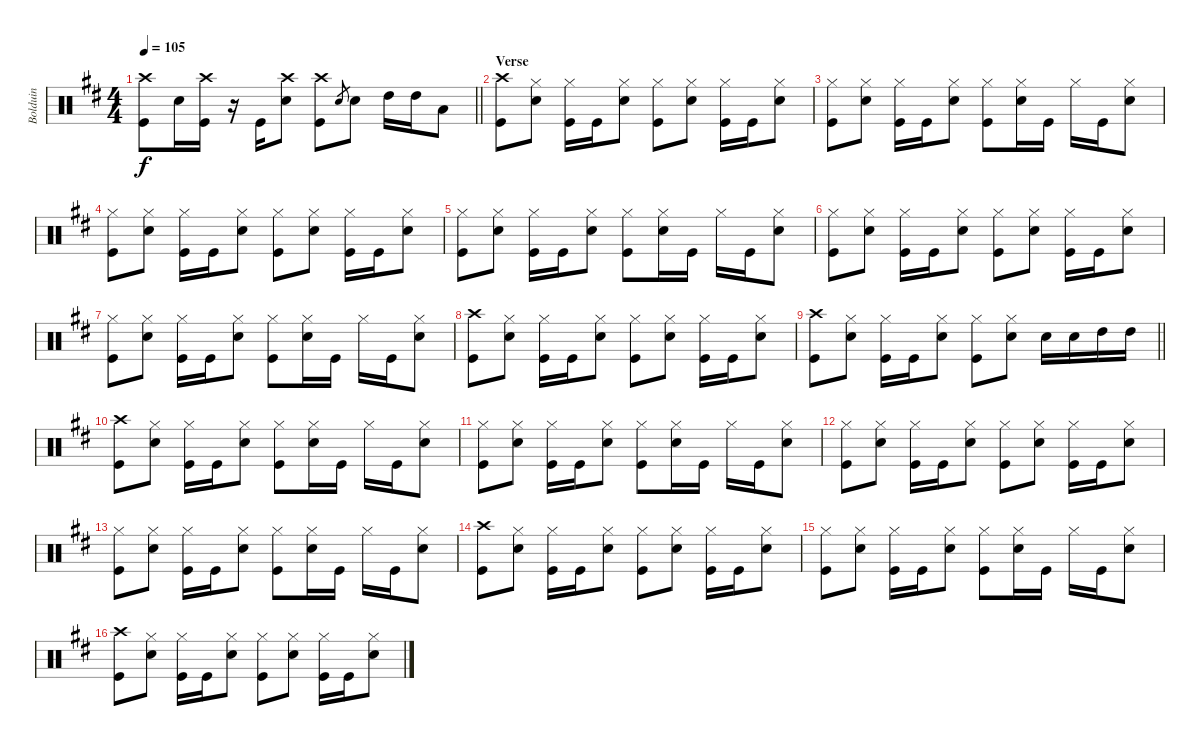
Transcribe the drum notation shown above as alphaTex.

\track ("Bolduin" "Bolduin") {instrument percussion}
\staff {score}
\articulation defaults
\ts (4 4)
\tempo 105
\clef neutral
\barLineRight lightlight
\ks bminor
("Kick (hit)" "Crash high (hit)").8{dy f} "Snare (hit) 2".16 ("Crash high (hit)" "Kick (hit)").16 r.16 "Kick (hit)".16 ("Snare (hit) 2" "Crash high (hit)").8 ("Kick (hit)" "Crash high (hit)").8 "Snare (hit) 2".8{gr} "Snare (hit) 2".8 "High Tom (hit)".16 "High Tom (hit)".16 "Low Tom (hit)".8 |
\section ("" "Verse")
("Kick (hit)" "Crash high (hit)").8 ("Hi-Hat (closed)" "Snare (hit) 2").8 ("Kick (hit)" "Hi-Hat (closed)").16 "Kick (hit)".16 ("Snare (hit) 2" "Hi-Hat (closed)").8 ("Kick (hit)" "Hi-Hat (closed)").8 ("Hi-Hat (closed)" "Snare (hit) 2").8 ("Hi-Hat (closed)" "Kick (hit)").16 "Kick (hit)".16 ("Snare (hit) 2" "Hi-Hat (closed)").8 |
("Hi-Hat (closed)" "Kick (hit)").8 ("Hi-Hat (closed)" "Snare (hit) 2").8 ("Kick (hit)" "Hi-Hat (closed)").16 "Kick (hit)".16 ("Snare (hit) 2" "Hi-Hat (closed)").8 ("Kick (hit)" "Hi-Hat (closed)").8 ("Hi-Hat (closed)" "Snare (hit) 2").16 "Kick (hit)".16 "Hi-Hat (closed)".16 "Kick (hit)".16 ("Snare (hit) 2" "Hi-Hat (closed)").8 |
("Hi-Hat (closed)" "Kick (hit)").8 ("Hi-Hat (closed)" "Snare (hit) 2").8 ("Kick (hit)" "Hi-Hat (closed)").16 "Kick (hit)".16 ("Snare (hit) 2" "Hi-Hat (closed)").8 ("Kick (hit)" "Hi-Hat (closed)").8 ("Hi-Hat (closed)" "Snare (hit) 2").8 ("Hi-Hat (closed)" "Kick (hit)").16 "Kick (hit)".16 ("Snare (hit) 2" "Hi-Hat (closed)").8 |
("Hi-Hat (closed)" "Kick (hit)").8 ("Hi-Hat (closed)" "Snare (hit) 2").8 ("Kick (hit)" "Hi-Hat (closed)").16 "Kick (hit)".16 ("Snare (hit) 2" "Hi-Hat (closed)").8 ("Kick (hit)" "Hi-Hat (closed)").8 ("Hi-Hat (closed)" "Snare (hit) 2").16 "Kick (hit)".16 "Hi-Hat (closed)".16 "Kick (hit)".16 ("Snare (hit) 2" "Hi-Hat (closed)").8 |
("Hi-Hat (closed)" "Kick (hit)").8 ("Hi-Hat (closed)" "Snare (hit) 2").8 ("Kick (hit)" "Hi-Hat (closed)").16 "Kick (hit)".16 ("Snare (hit) 2" "Hi-Hat (closed)").8 ("Kick (hit)" "Hi-Hat (closed)").8 ("Hi-Hat (closed)" "Snare (hit) 2").8 ("Hi-Hat (closed)" "Kick (hit)").16 "Kick (hit)".16 ("Snare (hit) 2" "Hi-Hat (closed)").8 |
("Hi-Hat (closed)" "Kick (hit)").8 ("Hi-Hat (closed)" "Snare (hit) 2").8 ("Kick (hit)" "Hi-Hat (closed)").16 "Kick (hit)".16 ("Snare (hit) 2" "Hi-Hat (closed)").8 ("Kick (hit)" "Hi-Hat (closed)").8 ("Hi-Hat (closed)" "Snare (hit) 2").16 "Kick (hit)".16 "Hi-Hat (closed)".16 "Kick (hit)".16 ("Snare (hit) 2" "Hi-Hat (closed)").8 |
("Crash high (hit)" "Kick (hit)").8 ("Hi-Hat (closed)" "Snare (hit) 2").8 ("Kick (hit)" "Hi-Hat (closed)").16 "Kick (hit)".16 ("Snare (hit) 2" "Hi-Hat (closed)").8 ("Kick (hit)" "Hi-Hat (closed)").8 ("Hi-Hat (closed)" "Snare (hit) 2").8 ("Hi-Hat (closed)" "Kick (hit)").16 "Kick (hit)".16 ("Snare (hit) 2" "Hi-Hat (closed)").8 |
\barLineRight lightlight
("Crash high (hit)" "Kick (hit)").8 ("Hi-Hat (closed)" "Snare (hit) 2").8 ("Kick (hit)" "Hi-Hat (closed)").16 "Kick (hit)".16 ("Snare (hit) 2" "Hi-Hat (closed)").8 ("Kick (hit)" "Hi-Hat (closed)").8 ("Hi-Hat (closed)" "Snare (hit) 2").8 "Snare (hit) 2".16 "Snare (hit) 2".16 "High Tom (hit)".16 "High Tom (hit)".16 |
("Crash high (hit)" "Kick (hit)").8 ("Hi-Hat (closed)" "Snare (hit) 2").8 ("Kick (hit)" "Hi-Hat (closed)").16 "Kick (hit)".16 ("Snare (hit) 2" "Hi-Hat (closed)").8 ("Kick (hit)" "Hi-Hat (closed)").8 ("Hi-Hat (closed)" "Snare (hit) 2").16 "Kick (hit)".16 "Hi-Hat (closed)".16 "Kick (hit)".16 ("Snare (hit) 2" "Hi-Hat (closed)").8 |
("Hi-Hat (closed)" "Kick (hit)").8 ("Hi-Hat (closed)" "Snare (hit) 2").8 ("Kick (hit)" "Hi-Hat (closed)").16 "Kick (hit)".16 ("Snare (hit) 2" "Hi-Hat (closed)").8 ("Kick (hit)" "Hi-Hat (closed)").8 ("Hi-Hat (closed)" "Snare (hit) 2").16 "Kick (hit)".16 "Hi-Hat (closed)".16 "Kick (hit)".16 ("Snare (hit) 2" "Hi-Hat (closed)").8 |
("Hi-Hat (closed)" "Kick (hit)").8 ("Hi-Hat (closed)" "Snare (hit) 2").8 ("Kick (hit)" "Hi-Hat (closed)").16 "Kick (hit)".16 ("Snare (hit) 2" "Hi-Hat (closed)").8 ("Kick (hit)" "Hi-Hat (closed)").8 ("Hi-Hat (closed)" "Snare (hit) 2").8 ("Hi-Hat (closed)" "Kick (hit)").16 "Kick (hit)".16 ("Snare (hit) 2" "Hi-Hat (closed)").8 |
("Hi-Hat (closed)" "Kick (hit)").8 ("Hi-Hat (closed)" "Snare (hit) 2").8 ("Kick (hit)" "Hi-Hat (closed)").16 "Kick (hit)".16 ("Snare (hit) 2" "Hi-Hat (closed)").8 ("Kick (hit)" "Hi-Hat (closed)").8 ("Hi-Hat (closed)" "Snare (hit) 2").16 "Kick (hit)".16 "Hi-Hat (closed)".16 "Kick (hit)".16 ("Snare (hit) 2" "Hi-Hat (closed)").8 |
("Crash high (hit)" "Kick (hit)").8 ("Hi-Hat (closed)" "Snare (hit) 2").8 ("Kick (hit)" "Hi-Hat (closed)").16 "Kick (hit)".16 ("Snare (hit) 2" "Hi-Hat (closed)").8 ("Kick (hit)" "Hi-Hat (closed)").8 ("Hi-Hat (closed)" "Snare (hit) 2").8 ("Hi-Hat (closed)" "Kick (hit)").16 "Kick (hit)".16 ("Snare (hit) 2" "Hi-Hat (closed)").8 |
("Hi-Hat (closed)" "Kick (hit)").8 ("Hi-Hat (closed)" "Snare (hit) 2").8 ("Kick (hit)" "Hi-Hat (closed)").16 "Kick (hit)".16 ("Snare (hit) 2" "Hi-Hat (closed)").8 ("Kick (hit)" "Hi-Hat (closed)").8 ("Hi-Hat (closed)" "Snare (hit) 2").16 "Kick (hit)".16 "Hi-Hat (closed)".16 "Kick (hit)".16 ("Snare (hit) 2" "Hi-Hat (closed)").8 |
("Crash high (hit)" "Kick (hit)").8 ("Hi-Hat (closed)" "Snare (hit) 2").8 ("Kick (hit)" "Hi-Hat (closed)").16 "Kick (hit)".16 ("Snare (hit) 2" "Hi-Hat (closed)").8 ("Kick (hit)" "Hi-Hat (closed)").8 ("Hi-Hat (closed)" "Snare (hit) 2").8 ("Hi-Hat (closed)" "Kick (hit)").16 "Kick (hit)".16 ("Snare (hit) 2" "Hi-Hat (closed)").8
